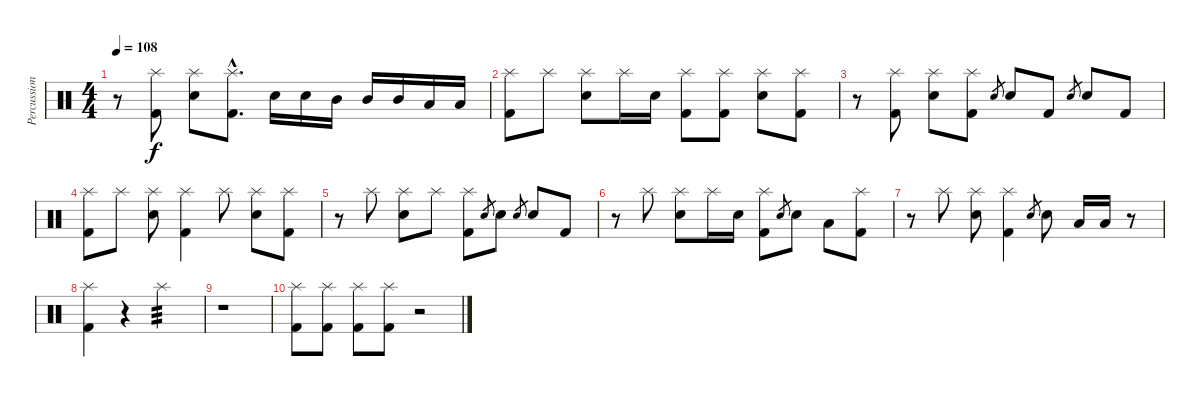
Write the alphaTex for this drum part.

\track ("Percussion" "Percussion") {instrument percussion}
\staff {score}
\articulation defaults
\ts (4 4)
\tempo 108
\clef neutral
\ks c
r.8{dy f} ("Kick (hit) 2" "Splash (hit)").8 ("Snare (hit) 2" "Splash (hit)").8 ("Kick (hit) 2"{hac} "Splash (hit)"{hac}).8{d} "Snare (hit) 2".16 "Snare (hit) 2".16 "Mid Tom (hit)".16 "Mid Tom (hit)".16 "Mid Tom (hit)".16 "Low Tom (hit)".16 "Low Tom (hit)".16 |
("Kick (hit) 2" "Splash (hit)").8 "Splash (hit)".8 ("Snare (hit) 2" "Splash (hit)").8 "Splash (hit)".16 "Snare (hit) 2".16 ("Kick (hit) 2" "Splash (hit)").8 ("Kick (hit) 2" "Splash (hit)").8 ("Snare (hit) 2" "Splash (hit)").8 ("Kick (hit) 2" "Splash (hit)").8 |
r.8 ("Kick (hit) 2" "Splash (hit)").8 ("Snare (hit) 2" "Splash (hit)").8 ("Kick (hit) 2" "Splash (hit)").8 "Snare (hit) 2".8{gr} "Snare (hit) 2".8 "Kick (hit) 2".8 "Snare (hit) 2".8{gr} "Snare (hit) 2".8 "Kick (hit) 2".8 |
("Kick (hit) 2" "Splash (hit)").8 "Splash (hit)".8 ("Snare (hit) 2" "Splash (hit)").8 ("Kick (hit) 2" "Splash (hit)").4 "Splash (hit)".8 ("Snare (hit) 2" "Splash (hit)").8 ("Kick (hit) 2" "Splash (hit)").8 |
r.8 "Splash (hit)".8 ("Snare (hit) 2" "Splash (hit)").8 "Splash (hit)".8 ("Kick (hit) 2" "Splash (hit)").8 "Snare (hit) 2".8{gr} "Snare (hit) 2".8 "Snare (hit) 2".8{gr} "Snare (hit) 2".8 "Kick (hit) 2".8 |
r.8 "Splash (hit)".8 ("Snare (hit) 2" "Splash (hit)").8 "Splash (hit)".16 "Snare (hit) 2".16 ("Kick (hit) 2" "Splash (hit)").8 "Snare (hit) 2".8{gr} "Snare (hit) 2".8 "Low Tom (hit)".8 ("Kick (hit) 2" "Splash (hit)").8 |
r.8 "Splash (hit)".8 ("Snare (hit) 2" "Splash (hit)").8 ("Kick (hit) 2" "Splash (hit)").4 "Snare (hit) 2".8{gr} "Snare (hit) 2".8 "Low Tom (hit)".16 "Low Tom (hit)".16 r.8 |
("Kick (hit) 2" "Splash (hit)").4 r.4 "Splash (hit)".2{tp 3} |
r.1 |
("Kick (hit) 2" "Splash (hit)").8 ("Kick (hit) 2" "Splash (hit)").8 ("Kick (hit) 2" "Splash (hit)").8 ("Kick (hit) 2" "Splash (hit)").8 r.2
